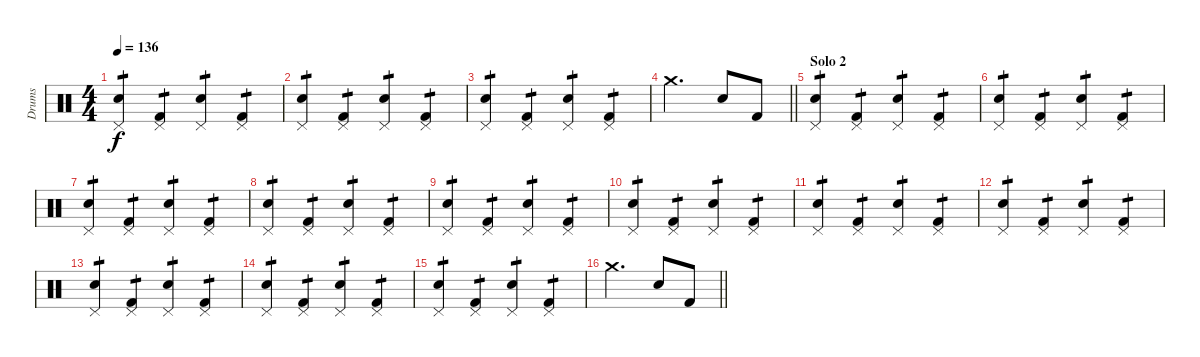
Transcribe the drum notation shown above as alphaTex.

\track ("Drums" "Drums") {instrument percussion}
\staff {score}
\articulation defaults
\ts (4 4)
\tempo 136
\clef neutral
\ks c
("Snare (hit) 2" "Pedal Hi-Hat (hit)").4{tp 1 dy f} ("Kick (hit) 2" "Pedal Hi-Hat (hit)").4{tp 1} ("Snare (hit) 2" "Pedal Hi-Hat (hit)").4{tp 1} ("Kick (hit) 2" "Pedal Hi-Hat (hit)").4{tp 1} |
("Snare (hit) 2" "Pedal Hi-Hat (hit)").4{tp 1} ("Kick (hit) 2" "Pedal Hi-Hat (hit)").4{tp 1} ("Snare (hit) 2" "Pedal Hi-Hat (hit)").4{tp 1} ("Kick (hit) 2" "Pedal Hi-Hat (hit)").4{tp 1} |
("Snare (hit) 2" "Pedal Hi-Hat (hit)").4{tp 1} ("Kick (hit) 2" "Pedal Hi-Hat (hit)").4{tp 1} ("Snare (hit) 2" "Pedal Hi-Hat (hit)").4{tp 1} ("Kick (hit) 2" "Pedal Hi-Hat (hit)").4{tp 1} |
\barLineRight lightlight "Crash medium (hit)".2{d} "Snare (hit) 2".8 "Kick (hit) 2".8
|
\section ("" "Solo 2")
("Snare (hit) 2" "Pedal Hi-Hat (hit)").4{tp 1} ("Kick (hit) 2" "Pedal Hi-Hat (hit)").4{tp 1} ("Snare (hit) 2" "Pedal Hi-Hat (hit)").4{tp 1} ("Kick (hit) 2" "Pedal Hi-Hat (hit)").4{tp 1} |
("Snare (hit) 2" "Pedal Hi-Hat (hit)").4{tp 1} ("Kick (hit) 2" "Pedal Hi-Hat (hit)").4{tp 1} ("Snare (hit) 2" "Pedal Hi-Hat (hit)").4{tp 1} ("Kick (hit) 2" "Pedal Hi-Hat (hit)").4{tp 1} |
("Snare (hit) 2" "Pedal Hi-Hat (hit)").4{tp 1} ("Kick (hit) 2" "Pedal Hi-Hat (hit)").4{tp 1} ("Snare (hit) 2" "Pedal Hi-Hat (hit)").4{tp 1} ("Kick (hit) 2" "Pedal Hi-Hat (hit)").4{tp 1} |
("Snare (hit) 2" "Pedal Hi-Hat (hit)").4{tp 1} ("Kick (hit) 2" "Pedal Hi-Hat (hit)").4{tp 1} ("Snare (hit) 2" "Pedal Hi-Hat (hit)").4{tp 1} ("Kick (hit) 2" "Pedal Hi-Hat (hit)").4{tp 1} |
("Snare (hit) 2" "Pedal Hi-Hat (hit)").4{tp 1} ("Kick (hit) 2" "Pedal Hi-Hat (hit)").4{tp 1} ("Snare (hit) 2" "Pedal Hi-Hat (hit)").4{tp 1} ("Kick (hit) 2" "Pedal Hi-Hat (hit)").4{tp 1} |
("Snare (hit) 2" "Pedal Hi-Hat (hit)").4{tp 1} ("Kick (hit) 2" "Pedal Hi-Hat (hit)").4{tp 1} ("Snare (hit) 2" "Pedal Hi-Hat (hit)").4{tp 1} ("Kick (hit) 2" "Pedal Hi-Hat (hit)").4{tp 1} |
("Snare (hit) 2" "Pedal Hi-Hat (hit)").4{tp 1} ("Kick (hit) 2" "Pedal Hi-Hat (hit)").4{tp 1} ("Snare (hit) 2" "Pedal Hi-Hat (hit)").4{tp 1} ("Kick (hit) 2" "Pedal Hi-Hat (hit)").4{tp 1} |
("Snare (hit) 2" "Pedal Hi-Hat (hit)").4{tp 1} ("Kick (hit) 2" "Pedal Hi-Hat (hit)").4{tp 1} ("Snare (hit) 2" "Pedal Hi-Hat (hit)").4{tp 1} ("Kick (hit) 2" "Pedal Hi-Hat (hit)").4{tp 1} |
("Snare (hit) 2" "Pedal Hi-Hat (hit)").4{tp 1} ("Kick (hit) 2" "Pedal Hi-Hat (hit)").4{tp 1} ("Snare (hit) 2" "Pedal Hi-Hat (hit)").4{tp 1} ("Kick (hit) 2" "Pedal Hi-Hat (hit)").4{tp 1} |
("Snare (hit) 2" "Pedal Hi-Hat (hit)").4{tp 1} ("Kick (hit) 2" "Pedal Hi-Hat (hit)").4{tp 1} ("Snare (hit) 2" "Pedal Hi-Hat (hit)").4{tp 1} ("Kick (hit) 2" "Pedal Hi-Hat (hit)").4{tp 1} |
("Snare (hit) 2" "Pedal Hi-Hat (hit)").4{tp 1} ("Kick (hit) 2" "Pedal Hi-Hat (hit)").4{tp 1} ("Snare (hit) 2" "Pedal Hi-Hat (hit)").4{tp 1} ("Kick (hit) 2" "Pedal Hi-Hat (hit)").4{tp 1} |
\barLineRight lightlight "Crash medium (hit)".2{d} "Snare (hit) 2".8 "Kick (hit) 2".8
